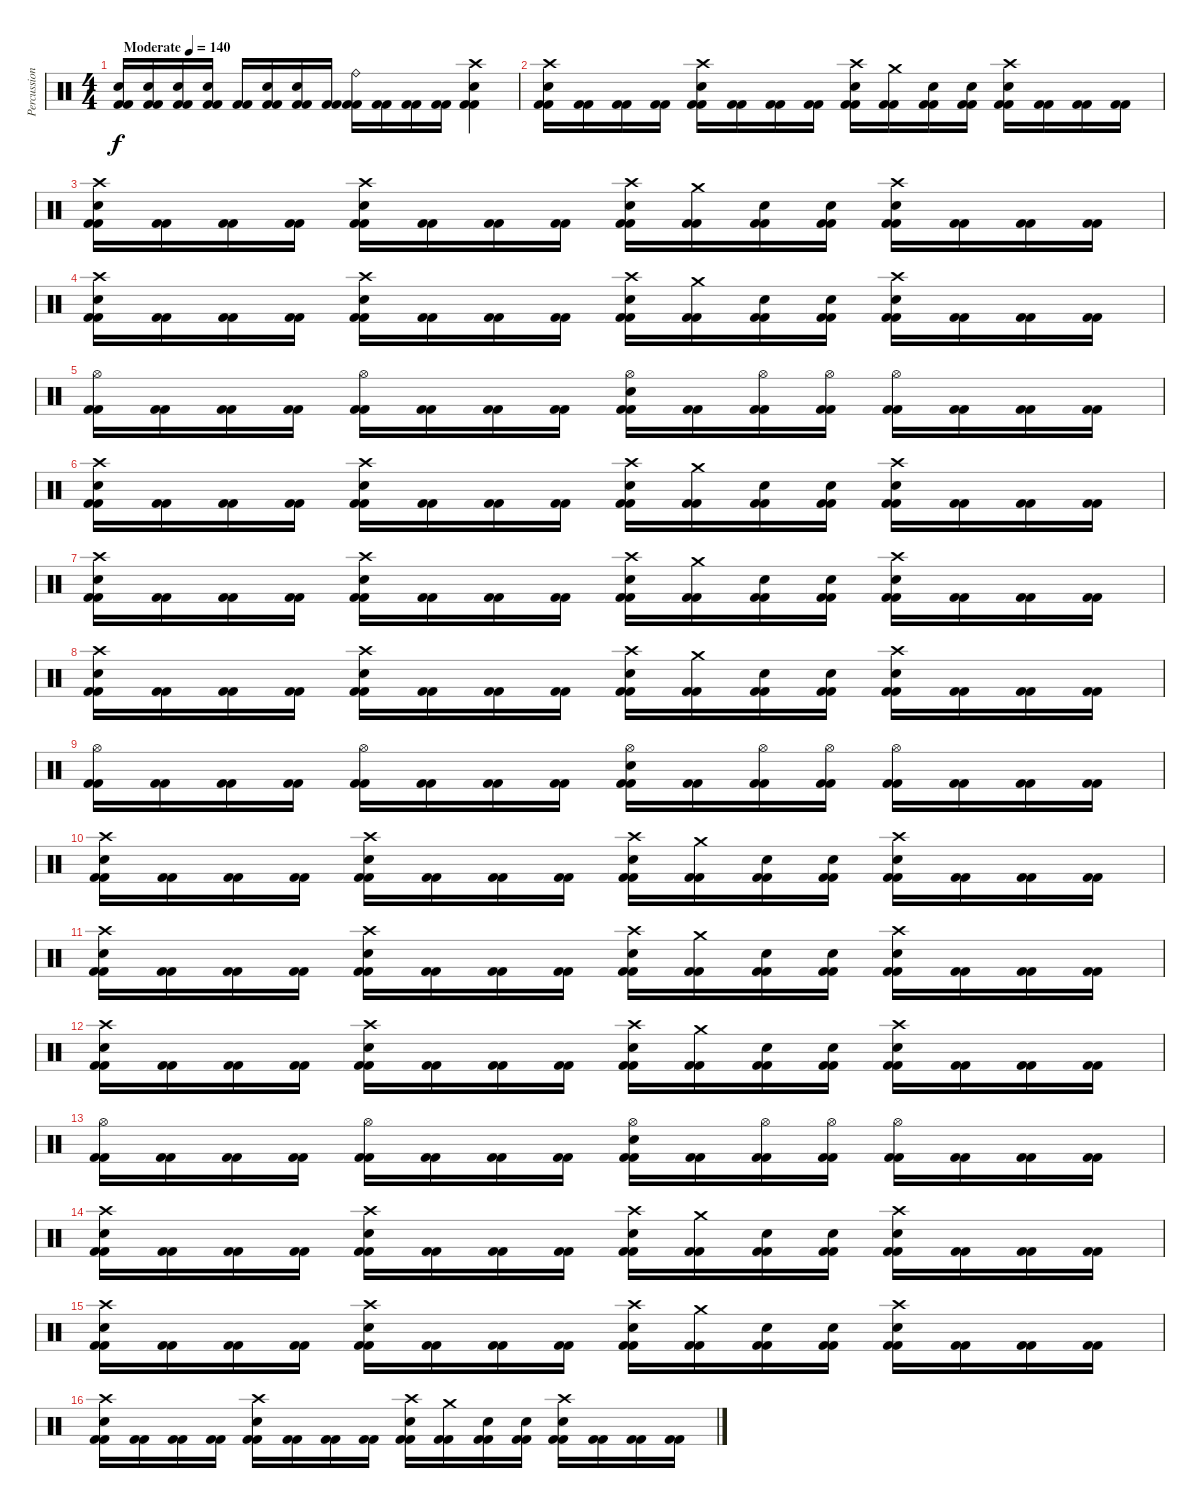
\track ("Percussion" "Percussion") {instrument percussion}
\staff {score}
\articulation defaults
\ts (4 4)
\tempo (140 "Moderate")
\clef neutral
\ks c
("Electric Snare (hit)" "Kick (hit) 2" "Kick (hit) 2").16{dy f} ("Electric Snare (hit)" "Kick (hit) 2" "Kick (hit) 2").16 ("Electric Snare (hit)" "Kick (hit) 2" "Kick (hit) 2").16 ("Electric Snare (hit)" "Kick (hit) 2" "Kick (hit) 2").16 ("Kick (hit) 2" "Kick (hit) 2").16 ("Electric Snare (hit)" "Kick (hit) 2" "Kick (hit) 2").16 ("Electric Snare (hit)" "Kick (hit) 2" "Kick (hit) 2").16 ("Kick (hit) 2" "Kick (hit) 2").16 ("Ride (bell)" "Kick (hit) 2" "Kick (hit) 2").16 ("Kick (hit) 2" "Kick (hit) 2").16 ("Kick (hit) 2" "Kick (hit) 2").16 ("Kick (hit) 2" "Kick (hit) 2").16 ("Crash high (hit)" "Electric Snare (hit)" "Kick (hit) 2" "Kick (hit) 2").4 |
("Crash high (hit)" "Electric Snare (hit)" "Kick (hit) 2" "Kick (hit) 2").16 ("Kick (hit) 2" "Kick (hit) 2").16 ("Kick (hit) 2" "Kick (hit) 2").16 ("Kick (hit) 2" "Kick (hit) 2").16 ("Crash high (hit)" "Electric Snare (hit)" "Kick (hit) 2" "Kick (hit) 2").16 ("Kick (hit) 2" "Kick (hit) 2").16 ("Kick (hit) 2" "Kick (hit) 2").16 ("Kick (hit) 2" "Kick (hit) 2").16 ("Crash high (hit)" "Electric Snare (hit)" "Kick (hit) 2" "Kick (hit) 2").16 ("Crash medium (hit)" "Kick (hit) 2" "Kick (hit) 2").16 ("Electric Snare (hit)" "Kick (hit) 2" "Kick (hit) 2").16 ("Electric Snare (hit)" "Kick (hit) 2" "Kick (hit) 2").16 ("Crash high (hit)" "Electric Snare (hit)" "Kick (hit) 2" "Kick (hit) 2").16 ("Kick (hit) 2" "Kick (hit) 2").16 ("Kick (hit) 2" "Kick (hit) 2").16 ("Kick (hit) 2" "Kick (hit) 2").16 |
("Crash high (hit)" "Electric Snare (hit)" "Kick (hit) 2" "Kick (hit) 2").16 ("Kick (hit) 2" "Kick (hit) 2").16 ("Kick (hit) 2" "Kick (hit) 2").16 ("Kick (hit) 2" "Kick (hit) 2").16 ("Crash high (hit)" "Electric Snare (hit)" "Kick (hit) 2" "Kick (hit) 2").16 ("Kick (hit) 2" "Kick (hit) 2").16 ("Kick (hit) 2" "Kick (hit) 2").16 ("Kick (hit) 2" "Kick (hit) 2").16 ("Crash high (hit)" "Electric Snare (hit)" "Kick (hit) 2" "Kick (hit) 2").16 ("Crash medium (hit)" "Kick (hit) 2" "Kick (hit) 2").16 ("Electric Snare (hit)" "Kick (hit) 2" "Kick (hit) 2").16 ("Electric Snare (hit)" "Kick (hit) 2" "Kick (hit) 2").16 ("Crash high (hit)" "Electric Snare (hit)" "Kick (hit) 2" "Kick (hit) 2").16 ("Kick (hit) 2" "Kick (hit) 2").16 ("Kick (hit) 2" "Kick (hit) 2").16 ("Kick (hit) 2" "Kick (hit) 2").16 |
("Crash high (hit)" "Electric Snare (hit)" "Kick (hit) 2" "Kick (hit) 2").16 ("Kick (hit) 2" "Kick (hit) 2").16 ("Kick (hit) 2" "Kick (hit) 2").16 ("Kick (hit) 2" "Kick (hit) 2").16 ("Crash high (hit)" "Electric Snare (hit)" "Kick (hit) 2" "Kick (hit) 2").16 ("Kick (hit) 2" "Kick (hit) 2").16 ("Kick (hit) 2" "Kick (hit) 2").16 ("Kick (hit) 2" "Kick (hit) 2").16 ("Crash high (hit)" "Electric Snare (hit)" "Kick (hit) 2" "Kick (hit) 2").16 ("Crash medium (hit)" "Kick (hit) 2" "Kick (hit) 2").16 ("Electric Snare (hit)" "Kick (hit) 2" "Kick (hit) 2").16 ("Electric Snare (hit)" "Kick (hit) 2" "Kick (hit) 2").16 ("Crash high (hit)" "Electric Snare (hit)" "Kick (hit) 2" "Kick (hit) 2").16 ("Kick (hit) 2" "Kick (hit) 2").16 ("Kick (hit) 2" "Kick (hit) 2").16 ("Kick (hit) 2" "Kick (hit) 2").16 |
("Hi-Hat (open)" "Kick (hit) 2" "Kick (hit) 2").16 ("Kick (hit) 2" "Kick (hit) 2").16 ("Kick (hit) 2" "Kick (hit) 2").16 ("Kick (hit) 2" "Kick (hit) 2").16 ("Hi-Hat (open)" "Kick (hit) 2" "Kick (hit) 2").16 ("Kick (hit) 2" "Kick (hit) 2").16 ("Kick (hit) 2" "Kick (hit) 2").16 ("Kick (hit) 2" "Kick (hit) 2").16 ("Hi-Hat (open)" "Electric Snare (hit)" "Kick (hit) 2" "Kick (hit) 2").16 ("Kick (hit) 2" "Kick (hit) 2").16 ("Hi-Hat (open)" "Kick (hit) 2" "Kick (hit) 2").16 ("Hi-Hat (open)" "Kick (hit) 2" "Kick (hit) 2").16 ("Hi-Hat (open)" "Kick (hit) 2" "Kick (hit) 2").16 ("Kick (hit) 2" "Kick (hit) 2").16 ("Kick (hit) 2" "Kick (hit) 2").16 ("Kick (hit) 2" "Kick (hit) 2").16 |
("Crash high (hit)" "Electric Snare (hit)" "Kick (hit) 2" "Kick (hit) 2").16 ("Kick (hit) 2" "Kick (hit) 2").16 ("Kick (hit) 2" "Kick (hit) 2").16 ("Kick (hit) 2" "Kick (hit) 2").16 ("Crash high (hit)" "Electric Snare (hit)" "Kick (hit) 2" "Kick (hit) 2").16 ("Kick (hit) 2" "Kick (hit) 2").16 ("Kick (hit) 2" "Kick (hit) 2").16 ("Kick (hit) 2" "Kick (hit) 2").16 ("Crash high (hit)" "Electric Snare (hit)" "Kick (hit) 2" "Kick (hit) 2").16 ("Crash medium (hit)" "Kick (hit) 2" "Kick (hit) 2").16 ("Electric Snare (hit)" "Kick (hit) 2" "Kick (hit) 2").16 ("Electric Snare (hit)" "Kick (hit) 2" "Kick (hit) 2").16 ("Crash high (hit)" "Electric Snare (hit)" "Kick (hit) 2" "Kick (hit) 2").16 ("Kick (hit) 2" "Kick (hit) 2").16 ("Kick (hit) 2" "Kick (hit) 2").16 ("Kick (hit) 2" "Kick (hit) 2").16 |
("Crash high (hit)" "Electric Snare (hit)" "Kick (hit) 2" "Kick (hit) 2").16 ("Kick (hit) 2" "Kick (hit) 2").16 ("Kick (hit) 2" "Kick (hit) 2").16 ("Kick (hit) 2" "Kick (hit) 2").16 ("Crash high (hit)" "Electric Snare (hit)" "Kick (hit) 2" "Kick (hit) 2").16 ("Kick (hit) 2" "Kick (hit) 2").16 ("Kick (hit) 2" "Kick (hit) 2").16 ("Kick (hit) 2" "Kick (hit) 2").16 ("Crash high (hit)" "Electric Snare (hit)" "Kick (hit) 2" "Kick (hit) 2").16 ("Crash medium (hit)" "Kick (hit) 2" "Kick (hit) 2").16 ("Electric Snare (hit)" "Kick (hit) 2" "Kick (hit) 2").16 ("Electric Snare (hit)" "Kick (hit) 2" "Kick (hit) 2").16 ("Crash high (hit)" "Electric Snare (hit)" "Kick (hit) 2" "Kick (hit) 2").16 ("Kick (hit) 2" "Kick (hit) 2").16 ("Kick (hit) 2" "Kick (hit) 2").16 ("Kick (hit) 2" "Kick (hit) 2").16 |
("Crash high (hit)" "Electric Snare (hit)" "Kick (hit) 2" "Kick (hit) 2").16 ("Kick (hit) 2" "Kick (hit) 2").16 ("Kick (hit) 2" "Kick (hit) 2").16 ("Kick (hit) 2" "Kick (hit) 2").16 ("Crash high (hit)" "Electric Snare (hit)" "Kick (hit) 2" "Kick (hit) 2").16 ("Kick (hit) 2" "Kick (hit) 2").16 ("Kick (hit) 2" "Kick (hit) 2").16 ("Kick (hit) 2" "Kick (hit) 2").16 ("Crash high (hit)" "Electric Snare (hit)" "Kick (hit) 2" "Kick (hit) 2").16 ("Crash medium (hit)" "Kick (hit) 2" "Kick (hit) 2").16 ("Electric Snare (hit)" "Kick (hit) 2" "Kick (hit) 2").16 ("Electric Snare (hit)" "Kick (hit) 2" "Kick (hit) 2").16 ("Crash high (hit)" "Electric Snare (hit)" "Kick (hit) 2" "Kick (hit) 2").16 ("Kick (hit) 2" "Kick (hit) 2").16 ("Kick (hit) 2" "Kick (hit) 2").16 ("Kick (hit) 2" "Kick (hit) 2").16 |
("Hi-Hat (open)" "Kick (hit) 2" "Kick (hit) 2").16 ("Kick (hit) 2" "Kick (hit) 2").16 ("Kick (hit) 2" "Kick (hit) 2").16 ("Kick (hit) 2" "Kick (hit) 2").16 ("Hi-Hat (open)" "Kick (hit) 2" "Kick (hit) 2").16 ("Kick (hit) 2" "Kick (hit) 2").16 ("Kick (hit) 2" "Kick (hit) 2").16 ("Kick (hit) 2" "Kick (hit) 2").16 ("Hi-Hat (open)" "Electric Snare (hit)" "Kick (hit) 2" "Kick (hit) 2").16 ("Kick (hit) 2" "Kick (hit) 2").16 ("Hi-Hat (open)" "Kick (hit) 2" "Kick (hit) 2").16 ("Hi-Hat (open)" "Kick (hit) 2" "Kick (hit) 2").16 ("Hi-Hat (open)" "Kick (hit) 2" "Kick (hit) 2").16 ("Kick (hit) 2" "Kick (hit) 2").16 ("Kick (hit) 2" "Kick (hit) 2").16 ("Kick (hit) 2" "Kick (hit) 2").16 |
("Crash high (hit)" "Electric Snare (hit)" "Kick (hit) 2" "Kick (hit) 2").16 ("Kick (hit) 2" "Kick (hit) 2").16 ("Kick (hit) 2" "Kick (hit) 2").16 ("Kick (hit) 2" "Kick (hit) 2").16 ("Crash high (hit)" "Electric Snare (hit)" "Kick (hit) 2" "Kick (hit) 2").16 ("Kick (hit) 2" "Kick (hit) 2").16 ("Kick (hit) 2" "Kick (hit) 2").16 ("Kick (hit) 2" "Kick (hit) 2").16 ("Crash high (hit)" "Electric Snare (hit)" "Kick (hit) 2" "Kick (hit) 2").16 ("Crash medium (hit)" "Kick (hit) 2" "Kick (hit) 2").16 ("Electric Snare (hit)" "Kick (hit) 2" "Kick (hit) 2").16 ("Electric Snare (hit)" "Kick (hit) 2" "Kick (hit) 2").16 ("Crash high (hit)" "Electric Snare (hit)" "Kick (hit) 2" "Kick (hit) 2").16 ("Kick (hit) 2" "Kick (hit) 2").16 ("Kick (hit) 2" "Kick (hit) 2").16 ("Kick (hit) 2" "Kick (hit) 2").16 |
("Crash high (hit)" "Electric Snare (hit)" "Kick (hit) 2" "Kick (hit) 2").16 ("Kick (hit) 2" "Kick (hit) 2").16 ("Kick (hit) 2" "Kick (hit) 2").16 ("Kick (hit) 2" "Kick (hit) 2").16 ("Crash high (hit)" "Electric Snare (hit)" "Kick (hit) 2" "Kick (hit) 2").16 ("Kick (hit) 2" "Kick (hit) 2").16 ("Kick (hit) 2" "Kick (hit) 2").16 ("Kick (hit) 2" "Kick (hit) 2").16 ("Crash high (hit)" "Electric Snare (hit)" "Kick (hit) 2" "Kick (hit) 2").16 ("Crash medium (hit)" "Kick (hit) 2" "Kick (hit) 2").16 ("Electric Snare (hit)" "Kick (hit) 2" "Kick (hit) 2").16 ("Electric Snare (hit)" "Kick (hit) 2" "Kick (hit) 2").16 ("Crash high (hit)" "Electric Snare (hit)" "Kick (hit) 2" "Kick (hit) 2").16 ("Kick (hit) 2" "Kick (hit) 2").16 ("Kick (hit) 2" "Kick (hit) 2").16 ("Kick (hit) 2" "Kick (hit) 2").16 |
("Crash high (hit)" "Electric Snare (hit)" "Kick (hit) 2" "Kick (hit) 2").16 ("Kick (hit) 2" "Kick (hit) 2").16 ("Kick (hit) 2" "Kick (hit) 2").16 ("Kick (hit) 2" "Kick (hit) 2").16 ("Crash high (hit)" "Electric Snare (hit)" "Kick (hit) 2" "Kick (hit) 2").16 ("Kick (hit) 2" "Kick (hit) 2").16 ("Kick (hit) 2" "Kick (hit) 2").16 ("Kick (hit) 2" "Kick (hit) 2").16 ("Crash high (hit)" "Electric Snare (hit)" "Kick (hit) 2" "Kick (hit) 2").16 ("Crash medium (hit)" "Kick (hit) 2" "Kick (hit) 2").16 ("Electric Snare (hit)" "Kick (hit) 2" "Kick (hit) 2").16 ("Electric Snare (hit)" "Kick (hit) 2" "Kick (hit) 2").16 ("Crash high (hit)" "Electric Snare (hit)" "Kick (hit) 2" "Kick (hit) 2").16 ("Kick (hit) 2" "Kick (hit) 2").16 ("Kick (hit) 2" "Kick (hit) 2").16 ("Kick (hit) 2" "Kick (hit) 2").16 |
("Hi-Hat (open)" "Kick (hit) 2" "Kick (hit) 2").16 ("Kick (hit) 2" "Kick (hit) 2").16 ("Kick (hit) 2" "Kick (hit) 2").16 ("Kick (hit) 2" "Kick (hit) 2").16 ("Hi-Hat (open)" "Kick (hit) 2" "Kick (hit) 2").16 ("Kick (hit) 2" "Kick (hit) 2").16 ("Kick (hit) 2" "Kick (hit) 2").16 ("Kick (hit) 2" "Kick (hit) 2").16 ("Hi-Hat (open)" "Electric Snare (hit)" "Kick (hit) 2" "Kick (hit) 2").16 ("Kick (hit) 2" "Kick (hit) 2").16 ("Hi-Hat (open)" "Kick (hit) 2" "Kick (hit) 2").16 ("Hi-Hat (open)" "Kick (hit) 2" "Kick (hit) 2").16 ("Hi-Hat (open)" "Kick (hit) 2" "Kick (hit) 2").16 ("Kick (hit) 2" "Kick (hit) 2").16 ("Kick (hit) 2" "Kick (hit) 2").16 ("Kick (hit) 2" "Kick (hit) 2").16 |
("Crash high (hit)" "Electric Snare (hit)" "Kick (hit) 2" "Kick (hit) 2").16 ("Kick (hit) 2" "Kick (hit) 2").16 ("Kick (hit) 2" "Kick (hit) 2").16 ("Kick (hit) 2" "Kick (hit) 2").16 ("Crash high (hit)" "Electric Snare (hit)" "Kick (hit) 2" "Kick (hit) 2").16 ("Kick (hit) 2" "Kick (hit) 2").16 ("Kick (hit) 2" "Kick (hit) 2").16 ("Kick (hit) 2" "Kick (hit) 2").16 ("Crash high (hit)" "Electric Snare (hit)" "Kick (hit) 2" "Kick (hit) 2").16 ("Crash medium (hit)" "Kick (hit) 2" "Kick (hit) 2").16 ("Electric Snare (hit)" "Kick (hit) 2" "Kick (hit) 2").16 ("Electric Snare (hit)" "Kick (hit) 2" "Kick (hit) 2").16 ("Crash high (hit)" "Electric Snare (hit)" "Kick (hit) 2" "Kick (hit) 2").16 ("Kick (hit) 2" "Kick (hit) 2").16 ("Kick (hit) 2" "Kick (hit) 2").16 ("Kick (hit) 2" "Kick (hit) 2").16 |
("Crash high (hit)" "Electric Snare (hit)" "Kick (hit) 2" "Kick (hit) 2").16 ("Kick (hit) 2" "Kick (hit) 2").16 ("Kick (hit) 2" "Kick (hit) 2").16 ("Kick (hit) 2" "Kick (hit) 2").16 ("Crash high (hit)" "Electric Snare (hit)" "Kick (hit) 2" "Kick (hit) 2").16 ("Kick (hit) 2" "Kick (hit) 2").16 ("Kick (hit) 2" "Kick (hit) 2").16 ("Kick (hit) 2" "Kick (hit) 2").16 ("Crash high (hit)" "Electric Snare (hit)" "Kick (hit) 2" "Kick (hit) 2").16 ("Crash medium (hit)" "Kick (hit) 2" "Kick (hit) 2").16 ("Electric Snare (hit)" "Kick (hit) 2" "Kick (hit) 2").16 ("Electric Snare (hit)" "Kick (hit) 2" "Kick (hit) 2").16 ("Crash high (hit)" "Electric Snare (hit)" "Kick (hit) 2" "Kick (hit) 2").16 ("Kick (hit) 2" "Kick (hit) 2").16 ("Kick (hit) 2" "Kick (hit) 2").16 ("Kick (hit) 2" "Kick (hit) 2").16 |
("Crash high (hit)" "Electric Snare (hit)" "Kick (hit) 2" "Kick (hit) 2").16 ("Kick (hit) 2" "Kick (hit) 2").16 ("Kick (hit) 2" "Kick (hit) 2").16 ("Kick (hit) 2" "Kick (hit) 2").16 ("Crash high (hit)" "Electric Snare (hit)" "Kick (hit) 2" "Kick (hit) 2").16 ("Kick (hit) 2" "Kick (hit) 2").16 ("Kick (hit) 2" "Kick (hit) 2").16 ("Kick (hit) 2" "Kick (hit) 2").16 ("Crash high (hit)" "Electric Snare (hit)" "Kick (hit) 2" "Kick (hit) 2").16 ("Crash medium (hit)" "Kick (hit) 2" "Kick (hit) 2").16 ("Electric Snare (hit)" "Kick (hit) 2" "Kick (hit) 2").16 ("Electric Snare (hit)" "Kick (hit) 2" "Kick (hit) 2").16 ("Crash high (hit)" "Electric Snare (hit)" "Kick (hit) 2" "Kick (hit) 2").16 ("Kick (hit) 2" "Kick (hit) 2").16 ("Kick (hit) 2" "Kick (hit) 2").16 ("Kick (hit) 2" "Kick (hit) 2").16
